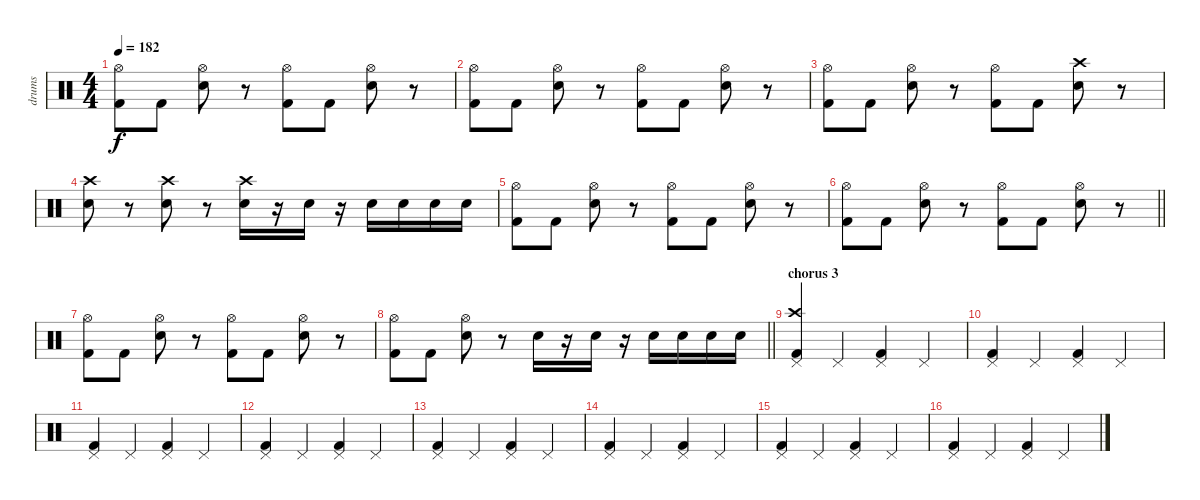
\track ("drums" "drums") {instrument percussion}
\staff {score}
\articulation defaults
\ts (4 4)
\tempo 182
\clef neutral
\ks c
("Kick (hit) 2" "Hi-Hat (open)").8{dy f} "Kick (hit) 2".8 ("Electric Snare (hit)" "Hi-Hat (open)").8 r.8 ("Kick (hit) 2" "Hi-Hat (open)").8 "Kick (hit) 2".8 ("Electric Snare (hit)" "Hi-Hat (open)").8 r.8 |
("Kick (hit) 2" "Hi-Hat (open)").8 "Kick (hit) 2".8 ("Electric Snare (hit)" "Hi-Hat (open)").8 r.8 ("Kick (hit) 2" "Hi-Hat (open)").8 "Kick (hit) 2".8 ("Electric Snare (hit)" "Hi-Hat (open)").8 r.8 |
("Kick (hit) 2" "Hi-Hat (open)").8 "Kick (hit) 2".8 ("Electric Snare (hit)" "Hi-Hat (open)").8 r.8 ("Kick (hit) 2" "Hi-Hat (open)").8 "Kick (hit) 2".8 ("Electric Snare (hit)" "Crash high (hit)").8 r.8 |
("Electric Snare (hit)" "Crash high (hit)").8 r.8 ("Electric Snare (hit)" "Crash high (hit)").8 r.8 ("Electric Snare (hit)" "Crash high (hit)").16 r.16 "Electric Snare (hit)".16 r.16 "Electric Snare (hit)".16 "Electric Snare (hit)".16 "Electric Snare (hit)".16 "Electric Snare (hit)".16 |
("Kick (hit) 2" "Hi-Hat (open)").8 "Kick (hit) 2".8 ("Electric Snare (hit)" "Hi-Hat (open)").8 r.8 ("Kick (hit) 2" "Hi-Hat (open)").8 "Kick (hit) 2".8 ("Electric Snare (hit)" "Hi-Hat (open)").8 r.8 |
\barLineRight lightlight
("Kick (hit) 2" "Hi-Hat (open)").8 "Kick (hit) 2".8 ("Electric Snare (hit)" "Hi-Hat (open)").8 r.8 ("Kick (hit) 2" "Hi-Hat (open)").8 "Kick (hit) 2".8 ("Electric Snare (hit)" "Hi-Hat (open)").8 r.8 |
("Kick (hit) 2" "Hi-Hat (open)").8 "Kick (hit) 2".8 ("Electric Snare (hit)" "Hi-Hat (open)").8 r.8 ("Kick (hit) 2" "Hi-Hat (open)").8 "Kick (hit) 2".8 ("Electric Snare (hit)" "Hi-Hat (open)").8 r.8 |
\barLineRight lightlight
("Kick (hit) 2" "Hi-Hat (open)").8 "Kick (hit) 2".8 ("Electric Snare (hit)" "Hi-Hat (open)").8 r.8 "Electric Snare (hit)".16 r.16 "Electric Snare (hit)".16 r.16 "Electric Snare (hit)".16 "Electric Snare (hit)".16 "Electric Snare (hit)".16 "Electric Snare (hit)".16 |
\section ("" "chorus 3")
("Kick (hit) 2" "Pedal Hi-Hat (hit)" "Crash high (hit)").4 "Pedal Hi-Hat (hit)".4 ("Kick (hit) 2" "Pedal Hi-Hat (hit)").4 "Pedal Hi-Hat (hit)".4 |
("Kick (hit) 2" "Pedal Hi-Hat (hit)").4 "Pedal Hi-Hat (hit)".4 ("Kick (hit) 2" "Pedal Hi-Hat (hit)").4 "Pedal Hi-Hat (hit)".4 |
("Kick (hit) 2" "Pedal Hi-Hat (hit)").4 "Pedal Hi-Hat (hit)".4 ("Kick (hit) 2" "Pedal Hi-Hat (hit)").4 "Pedal Hi-Hat (hit)".4 |
("Kick (hit) 2" "Pedal Hi-Hat (hit)").4 "Pedal Hi-Hat (hit)".4 ("Kick (hit) 2" "Pedal Hi-Hat (hit)").4 "Pedal Hi-Hat (hit)".4 |
("Kick (hit) 2" "Pedal Hi-Hat (hit)").4 "Pedal Hi-Hat (hit)".4 ("Kick (hit) 2" "Pedal Hi-Hat (hit)").4 "Pedal Hi-Hat (hit)".4 |
("Kick (hit) 2" "Pedal Hi-Hat (hit)").4 "Pedal Hi-Hat (hit)".4 ("Kick (hit) 2" "Pedal Hi-Hat (hit)").4 "Pedal Hi-Hat (hit)".4 |
("Kick (hit) 2" "Pedal Hi-Hat (hit)").4 "Pedal Hi-Hat (hit)".4 ("Kick (hit) 2" "Pedal Hi-Hat (hit)").4 "Pedal Hi-Hat (hit)".4 |
("Kick (hit) 2" "Pedal Hi-Hat (hit)").4 "Pedal Hi-Hat (hit)".4 ("Kick (hit) 2" "Pedal Hi-Hat (hit)").4 "Pedal Hi-Hat (hit)".4
